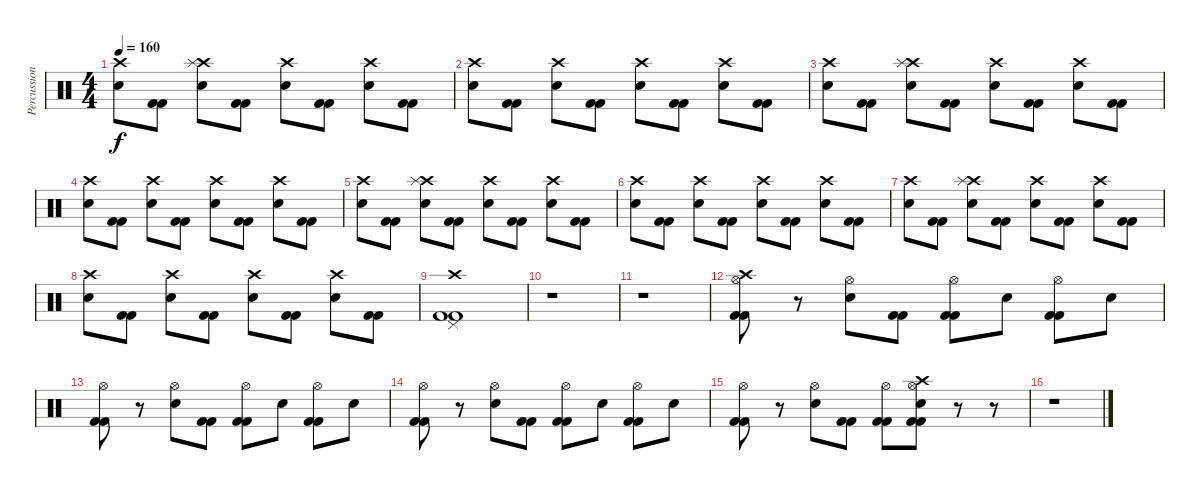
\track ("Percussion" "Percussion") {instrument percussion}
\staff {score}
\articulation defaults
\ts (4 4)
\tempo 160
\clef neutral
\ks c
("Crash high (hit)" "Electric Snare (hit)").8{dy f} ("Kick (hit) 2" "Kick (hit) 2").8 ("Crash high (hit)" "Electric Snare (hit)" "Splash (hit)").8 ("Kick (hit) 2" "Kick (hit) 2").8 ("Crash high (hit)" "Electric Snare (hit)").8 ("Kick (hit) 2" "Kick (hit) 2").8 ("Crash high (hit)" "Electric Snare (hit)").8 ("Kick (hit) 2" "Kick (hit) 2").8 |
("Crash high (hit)" "Electric Snare (hit)").8 ("Kick (hit) 2" "Kick (hit) 2").8 ("Crash high (hit)" "Electric Snare (hit)").8 ("Kick (hit) 2" "Kick (hit) 2").8 ("Crash high (hit)" "Electric Snare (hit)").8 ("Kick (hit) 2" "Kick (hit) 2").8 ("Crash high (hit)" "Electric Snare (hit)").8 ("Kick (hit) 2" "Kick (hit) 2").8 |
("Crash high (hit)" "Electric Snare (hit)").8 ("Kick (hit) 2" "Kick (hit) 2").8 ("Crash high (hit)" "Electric Snare (hit)" "Splash (hit)").8 ("Kick (hit) 2" "Kick (hit) 2").8 ("Crash high (hit)" "Electric Snare (hit)").8 ("Kick (hit) 2" "Kick (hit) 2").8 ("Crash high (hit)" "Electric Snare (hit)").8 ("Kick (hit) 2" "Kick (hit) 2").8 |
("Crash high (hit)" "Electric Snare (hit)").8 ("Kick (hit) 2" "Kick (hit) 2").8 ("Crash high (hit)" "Electric Snare (hit)").8 ("Kick (hit) 2" "Kick (hit) 2").8 ("Crash high (hit)" "Electric Snare (hit)").8 ("Kick (hit) 2" "Kick (hit) 2").8 ("Crash high (hit)" "Electric Snare (hit)").8 ("Kick (hit) 2" "Kick (hit) 2").8 |
("Crash high (hit)" "Electric Snare (hit)").8 ("Kick (hit) 2" "Kick (hit) 2").8 ("Crash high (hit)" "Electric Snare (hit)" "Splash (hit)").8 ("Kick (hit) 2" "Kick (hit) 2").8 ("Crash high (hit)" "Electric Snare (hit)").8 ("Kick (hit) 2" "Kick (hit) 2").8 ("Crash high (hit)" "Electric Snare (hit)").8 ("Kick (hit) 2" "Kick (hit) 2").8 |
("Crash high (hit)" "Electric Snare (hit)").8 ("Kick (hit) 2" "Kick (hit) 2").8 ("Crash high (hit)" "Electric Snare (hit)").8 ("Kick (hit) 2" "Kick (hit) 2").8 ("Crash high (hit)" "Electric Snare (hit)").8 ("Kick (hit) 2" "Kick (hit) 2").8 ("Crash high (hit)" "Electric Snare (hit)").8 ("Kick (hit) 2" "Kick (hit) 2").8 |
("Crash high (hit)" "Electric Snare (hit)").8 ("Kick (hit) 2" "Kick (hit) 2").8 ("Crash high (hit)" "Electric Snare (hit)" "Splash (hit)").8 ("Kick (hit) 2" "Kick (hit) 2").8 ("Crash high (hit)" "Electric Snare (hit)").8 ("Kick (hit) 2" "Kick (hit) 2").8 ("Crash high (hit)" "Electric Snare (hit)").8 ("Kick (hit) 2" "Kick (hit) 2").8 |
("Crash high (hit)" "Electric Snare (hit)").8 ("Kick (hit) 2" "Kick (hit) 2").8 ("Crash high (hit)" "Electric Snare (hit)").8 ("Kick (hit) 2" "Kick (hit) 2").8 ("Crash high (hit)" "Electric Snare (hit)").8 ("Kick (hit) 2" "Kick (hit) 2").8 ("Crash high (hit)" "Electric Snare (hit)").8 ("Kick (hit) 2" "Kick (hit) 2").8 |
("Pedal Hi-Hat (hit)" "Crash high (hit)" "Kick (hit) 2" "Kick (hit) 2").1 |
r.1 |
r.1 |
("Hi-Hat (open)" "Crash high (hit)" "Kick (hit) 2" "Kick (hit) 2").8 r.8 ("Hi-Hat (open)" "Electric Snare (hit)").8 ("Kick (hit) 2" "Kick (hit) 2").8 ("Hi-Hat (open)" "Kick (hit) 2" "Kick (hit) 2").8 "Electric Snare (hit)".8 ("Hi-Hat (open)" "Kick (hit) 2" "Kick (hit) 2").8 "Electric Snare (hit)".8 |
("Hi-Hat (open)" "Kick (hit) 2" "Kick (hit) 2").8 r.8 ("Hi-Hat (open)" "Electric Snare (hit)").8 ("Kick (hit) 2" "Kick (hit) 2").8 ("Hi-Hat (open)" "Kick (hit) 2" "Kick (hit) 2").8 "Electric Snare (hit)".8 ("Hi-Hat (open)" "Kick (hit) 2" "Kick (hit) 2").8 "Electric Snare (hit)".8 |
("Hi-Hat (open)" "Kick (hit) 2" "Kick (hit) 2").8 r.8 ("Hi-Hat (open)" "Electric Snare (hit)").8 ("Kick (hit) 2" "Kick (hit) 2").8 ("Hi-Hat (open)" "Kick (hit) 2" "Kick (hit) 2").8 "Electric Snare (hit)".8 ("Hi-Hat (open)" "Kick (hit) 2" "Kick (hit) 2").8 "Electric Snare (hit)".8 |
("Hi-Hat (open)" "Kick (hit) 2" "Kick (hit) 2").8 r.8 ("Hi-Hat (open)" "Electric Snare (hit)").8 ("Kick (hit) 2" "Kick (hit) 2").8 ("Hi-Hat (open)" "Kick (hit) 2" "Kick (hit) 2").8 ("Hi-Hat (open)" "Crash high (hit)" "Electric Snare (hit)" "Kick (hit) 2" "Kick (hit) 2").8 r.8 r.8 |
r.1
